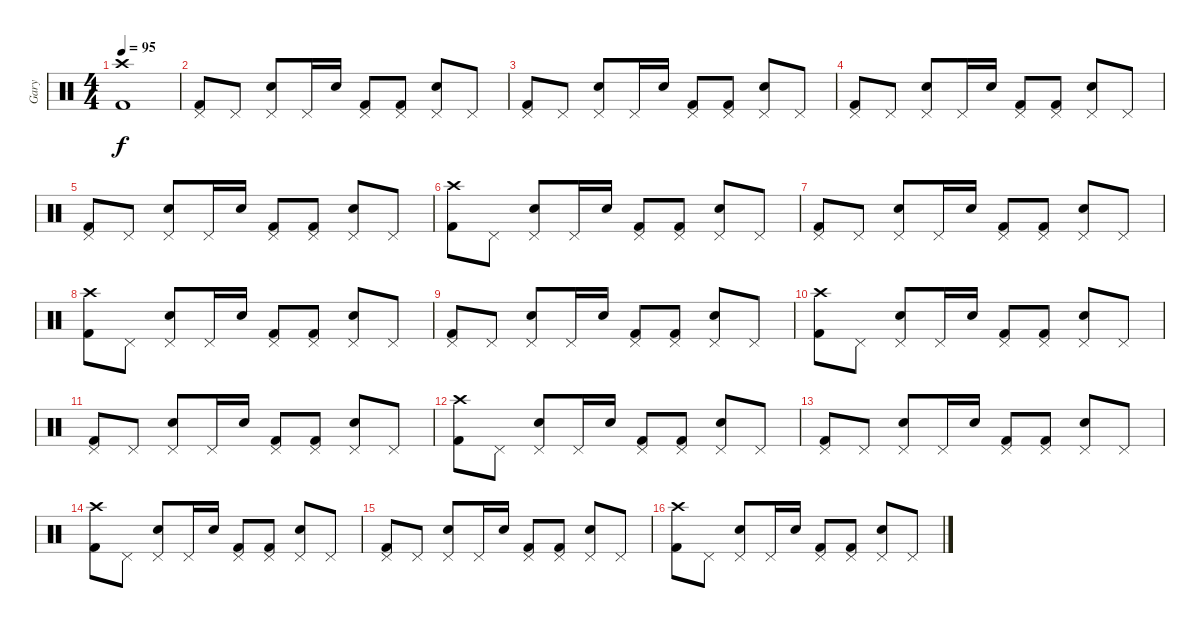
\track ("Gary" "Gary") {instrument percussion}
\staff {score}
\articulation defaults
\ts (4 4)
\tempo 95
\clef neutral
\ks c
("Crash high (hit)" "Kick (hit) 2").1{dy f} |
("Pedal Hi-Hat (hit)" "Kick (hit) 2").8 "Pedal Hi-Hat (hit)".8 ("Pedal Hi-Hat (hit)" "Electric Snare (hit)").8 "Pedal Hi-Hat (hit)".16 "Electric Snare (hit)".16 ("Pedal Hi-Hat (hit)" "Kick (hit) 2").8 ("Pedal Hi-Hat (hit)" "Kick (hit) 2").8 ("Pedal Hi-Hat (hit)" "Electric Snare (hit)").8 "Pedal Hi-Hat (hit)".8 |
("Pedal Hi-Hat (hit)" "Kick (hit) 2").8 "Pedal Hi-Hat (hit)".8 ("Pedal Hi-Hat (hit)" "Electric Snare (hit)").8 "Pedal Hi-Hat (hit)".16 "Electric Snare (hit)".16 ("Pedal Hi-Hat (hit)" "Kick (hit) 2").8 ("Pedal Hi-Hat (hit)" "Kick (hit) 2").8 ("Pedal Hi-Hat (hit)" "Electric Snare (hit)").8 "Pedal Hi-Hat (hit)".8 |
("Pedal Hi-Hat (hit)" "Kick (hit) 2").8 "Pedal Hi-Hat (hit)".8 ("Pedal Hi-Hat (hit)" "Electric Snare (hit)").8 "Pedal Hi-Hat (hit)".16 "Electric Snare (hit)".16 ("Pedal Hi-Hat (hit)" "Kick (hit) 2").8 ("Pedal Hi-Hat (hit)" "Kick (hit) 2").8 ("Pedal Hi-Hat (hit)" "Electric Snare (hit)").8 "Pedal Hi-Hat (hit)".8 |
("Pedal Hi-Hat (hit)" "Kick (hit) 2").8 "Pedal Hi-Hat (hit)".8 ("Pedal Hi-Hat (hit)" "Electric Snare (hit)").8 "Pedal Hi-Hat (hit)".16 "Electric Snare (hit)".16 ("Pedal Hi-Hat (hit)" "Kick (hit) 2").8 ("Pedal Hi-Hat (hit)" "Kick (hit) 2").8 ("Pedal Hi-Hat (hit)" "Electric Snare (hit)").8 "Pedal Hi-Hat (hit)".8 |
("Crash high (hit)" "Kick (hit) 2").8 "Pedal Hi-Hat (hit)".8 ("Pedal Hi-Hat (hit)" "Electric Snare (hit)").8 "Pedal Hi-Hat (hit)".16 "Electric Snare (hit)".16 ("Pedal Hi-Hat (hit)" "Kick (hit) 2").8 ("Pedal Hi-Hat (hit)" "Kick (hit) 2").8 ("Pedal Hi-Hat (hit)" "Electric Snare (hit)").8 "Pedal Hi-Hat (hit)".8 |
("Pedal Hi-Hat (hit)" "Kick (hit) 2").8 "Pedal Hi-Hat (hit)".8 ("Pedal Hi-Hat (hit)" "Electric Snare (hit)").8 "Pedal Hi-Hat (hit)".16 "Electric Snare (hit)".16 ("Pedal Hi-Hat (hit)" "Kick (hit) 2").8 ("Pedal Hi-Hat (hit)" "Kick (hit) 2").8 ("Pedal Hi-Hat (hit)" "Electric Snare (hit)").8 "Pedal Hi-Hat (hit)".8 |
("Crash high (hit)" "Kick (hit) 2").8 "Pedal Hi-Hat (hit)".8 ("Pedal Hi-Hat (hit)" "Electric Snare (hit)").8 "Pedal Hi-Hat (hit)".16 "Electric Snare (hit)".16 ("Pedal Hi-Hat (hit)" "Kick (hit) 2").8 ("Pedal Hi-Hat (hit)" "Kick (hit) 2").8 ("Pedal Hi-Hat (hit)" "Electric Snare (hit)").8 "Pedal Hi-Hat (hit)".8 |
("Pedal Hi-Hat (hit)" "Kick (hit) 2").8 "Pedal Hi-Hat (hit)".8 ("Pedal Hi-Hat (hit)" "Electric Snare (hit)").8 "Pedal Hi-Hat (hit)".16 "Electric Snare (hit)".16 ("Pedal Hi-Hat (hit)" "Kick (hit) 2").8 ("Pedal Hi-Hat (hit)" "Kick (hit) 2").8 ("Pedal Hi-Hat (hit)" "Electric Snare (hit)").8 "Pedal Hi-Hat (hit)".8 |
("Crash high (hit)" "Kick (hit) 2").8 "Pedal Hi-Hat (hit)".8 ("Pedal Hi-Hat (hit)" "Electric Snare (hit)").8 "Pedal Hi-Hat (hit)".16 "Electric Snare (hit)".16 ("Pedal Hi-Hat (hit)" "Kick (hit) 2").8 ("Pedal Hi-Hat (hit)" "Kick (hit) 2").8 ("Pedal Hi-Hat (hit)" "Electric Snare (hit)").8 "Pedal Hi-Hat (hit)".8 |
("Pedal Hi-Hat (hit)" "Kick (hit) 2").8 "Pedal Hi-Hat (hit)".8 ("Pedal Hi-Hat (hit)" "Electric Snare (hit)").8 "Pedal Hi-Hat (hit)".16 "Electric Snare (hit)".16 ("Pedal Hi-Hat (hit)" "Kick (hit) 2").8 ("Pedal Hi-Hat (hit)" "Kick (hit) 2").8 ("Pedal Hi-Hat (hit)" "Electric Snare (hit)").8 "Pedal Hi-Hat (hit)".8 |
("Crash high (hit)" "Kick (hit) 2").8 "Pedal Hi-Hat (hit)".8 ("Pedal Hi-Hat (hit)" "Electric Snare (hit)").8 "Pedal Hi-Hat (hit)".16 "Electric Snare (hit)".16 ("Pedal Hi-Hat (hit)" "Kick (hit) 2").8 ("Pedal Hi-Hat (hit)" "Kick (hit) 2").8 ("Pedal Hi-Hat (hit)" "Electric Snare (hit)").8 "Pedal Hi-Hat (hit)".8 |
("Pedal Hi-Hat (hit)" "Kick (hit) 2").8 "Pedal Hi-Hat (hit)".8 ("Pedal Hi-Hat (hit)" "Electric Snare (hit)").8 "Pedal Hi-Hat (hit)".16 "Electric Snare (hit)".16 ("Pedal Hi-Hat (hit)" "Kick (hit) 2").8 ("Pedal Hi-Hat (hit)" "Kick (hit) 2").8 ("Pedal Hi-Hat (hit)" "Electric Snare (hit)").8 "Pedal Hi-Hat (hit)".8 |
("Crash high (hit)" "Kick (hit) 2").8 "Pedal Hi-Hat (hit)".8 ("Pedal Hi-Hat (hit)" "Electric Snare (hit)").8 "Pedal Hi-Hat (hit)".16 "Electric Snare (hit)".16 ("Pedal Hi-Hat (hit)" "Kick (hit) 2").8 ("Pedal Hi-Hat (hit)" "Kick (hit) 2").8 ("Pedal Hi-Hat (hit)" "Electric Snare (hit)").8 "Pedal Hi-Hat (hit)".8 |
("Pedal Hi-Hat (hit)" "Kick (hit) 2").8 "Pedal Hi-Hat (hit)".8 ("Pedal Hi-Hat (hit)" "Electric Snare (hit)").8 "Pedal Hi-Hat (hit)".16 "Electric Snare (hit)".16 ("Pedal Hi-Hat (hit)" "Kick (hit) 2").8 ("Pedal Hi-Hat (hit)" "Kick (hit) 2").8 ("Pedal Hi-Hat (hit)" "Electric Snare (hit)").8 "Pedal Hi-Hat (hit)".8 |
("Crash high (hit)" "Kick (hit) 2").8 "Pedal Hi-Hat (hit)".8 ("Pedal Hi-Hat (hit)" "Electric Snare (hit)").8 "Pedal Hi-Hat (hit)".16 "Electric Snare (hit)".16 ("Pedal Hi-Hat (hit)" "Kick (hit) 2").8 ("Pedal Hi-Hat (hit)" "Kick (hit) 2").8 ("Pedal Hi-Hat (hit)" "Electric Snare (hit)").8 "Pedal Hi-Hat (hit)".8
